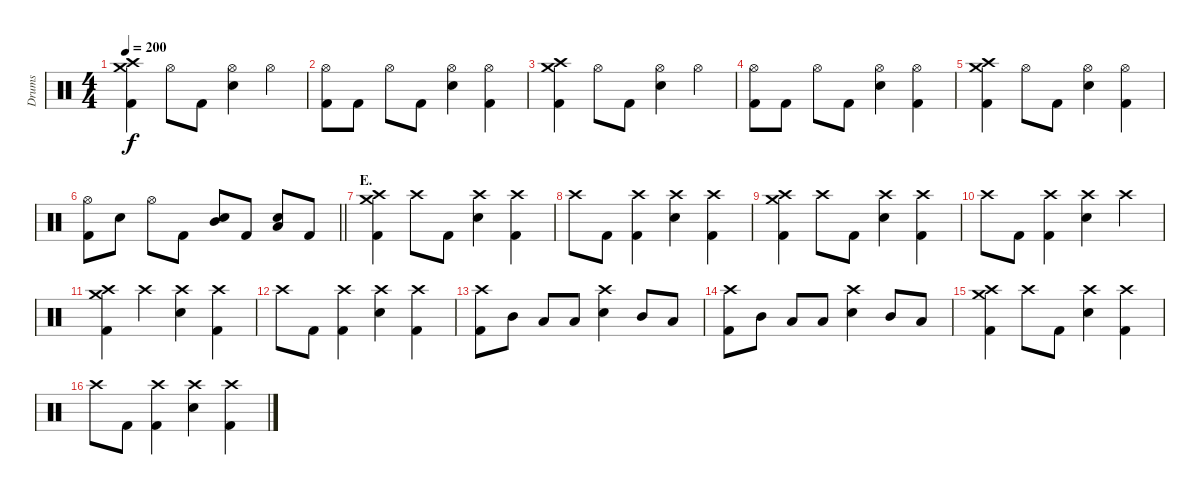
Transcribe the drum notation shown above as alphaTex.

\track ("Drums" "Drums") {instrument percussion}
\staff {score}
\articulation defaults
\ts (4 4)
\tempo 200
\clef neutral
\ks c
("Crash medium (hit)" "Crash high (hit)" "Kick (hit) 2").4{dy f} "Hi-Hat (open)".8 "Kick (hit) 2".8 ("Hi-Hat (open)" "Electric Snare (hit)").4 "Hi-Hat (open)".4 |
("Hi-Hat (open)" "Kick (hit) 2").8 "Kick (hit) 2".8 "Hi-Hat (open)".8 "Kick (hit) 2".8 ("Hi-Hat (open)" "Electric Snare (hit)").4 ("Hi-Hat (open)" "Kick (hit) 2").4 |
("Crash medium (hit)" "Crash high (hit)" "Kick (hit) 2").4 "Hi-Hat (open)".8 "Kick (hit) 2".8 ("Hi-Hat (open)" "Electric Snare (hit)").4 "Hi-Hat (open)".4 |
("Hi-Hat (open)" "Kick (hit) 2").8 "Kick (hit) 2".8 "Hi-Hat (open)".8 "Kick (hit) 2".8 ("Hi-Hat (open)" "Electric Snare (hit)").4 ("Hi-Hat (open)" "Kick (hit) 2").4 |
("Crash medium (hit)" "Crash high (hit)" "Kick (hit) 2").4 "Hi-Hat (open)".8 "Kick (hit) 2".8 ("Hi-Hat (open)" "Electric Snare (hit)").4 ("Hi-Hat (open)" "Kick (hit) 2").4 |
\barLineRight lightlight
("Hi-Hat (open)" "Kick (hit) 2").8 "Electric Snare (hit)".8 "Hi-Hat (open)".8 "Kick (hit) 2".8 ("Mid Tom (hit)" "Electric Snare (hit)").8{bu 120} "Kick (hit) 2".8 ("Low Tom (hit)" "Electric Snare (hit)").8{bu 120} "Kick (hit) 2".8 |
\section ("" "E.")
("Crash medium (hit)" "Crash high (hit)" "Kick (hit) 2").4 "Crash high (hit)".8 "Kick (hit) 2".8 ("Crash high (hit)" "Electric Snare (hit)").4 ("Crash high (hit)" "Kick (hit) 2").4 |
"Crash high (hit)".8 "Kick (hit) 2".8 ("Crash high (hit)" "Kick (hit) 2").4 ("Crash high (hit)" "Electric Snare (hit)").4 ("Crash high (hit)" "Kick (hit) 2").4 |
("Crash medium (hit)" "Crash high (hit)" "Kick (hit) 2").4 "Crash high (hit)".8 "Kick (hit) 2".8 ("Crash high (hit)" "Electric Snare (hit)").4 ("Crash high (hit)" "Kick (hit) 2").4 |
"Crash high (hit)".8 "Kick (hit) 2".8 ("Crash high (hit)" "Kick (hit) 2").4 ("Crash high (hit)" "Electric Snare (hit)").4 "Crash high (hit)".4 |
("Crash medium (hit)" "Crash high (hit)" "Kick (hit) 2").4 "Crash high (hit)".4 ("Crash high (hit)" "Electric Snare (hit)").4 ("Crash high (hit)" "Kick (hit) 2").4 |
"Crash high (hit)".8 "Kick (hit) 2".8 ("Crash high (hit)" "Kick (hit) 2").4 ("Crash high (hit)" "Electric Snare (hit)").4 ("Crash high (hit)" "Kick (hit) 2").4 |
("Crash high (hit)" "Kick (hit) 2").8 "Mid Tom (hit)".8 "Low Tom (hit)".8 "Low Floor Tom (hit)".8 ("Crash high (hit)" "Electric Snare (hit)").4 "Mid Tom (hit)".8 "Low Tom (hit)".8 |
("Crash high (hit)" "Kick (hit) 2").8 "Mid Tom (hit)".8 "Low Tom (hit)".8 "Low Floor Tom (hit)".8 ("Crash high (hit)" "Electric Snare (hit)").4 "Mid Tom (hit)".8 "Low Tom (hit)".8 |
("Crash medium (hit)" "Crash high (hit)" "Kick (hit) 2").4 "Crash high (hit)".8 "Kick (hit) 2".8 ("Crash high (hit)" "Electric Snare (hit)").4 ("Crash high (hit)" "Kick (hit) 2").4 |
"Crash high (hit)".8 "Kick (hit) 2".8 ("Crash high (hit)" "Kick (hit) 2").4 ("Crash high (hit)" "Electric Snare (hit)").4 ("Crash high (hit)" "Kick (hit) 2").4
